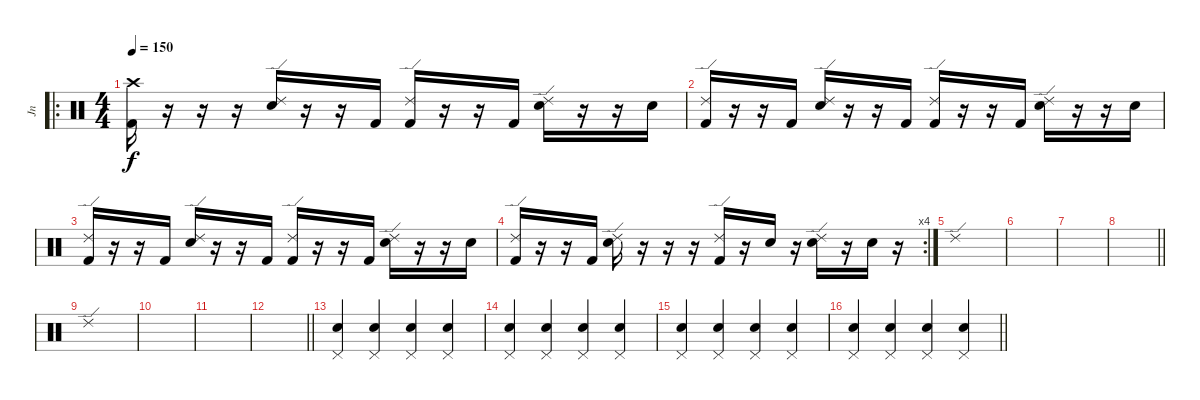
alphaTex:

\track ("Jn" "Jn") {instrument percussion}
\staff {score}
\articulation defaults
\ro
\ts (4 4)
\tempo 150
\clef neutral
\ks c
("Crash high (hit)" "Kick (hit) 2").16{dy f} r.16 r.16 r.16 ("Ride (edge) 2" "Electric Snare (hit)").16 r.16 r.16 "Kick (hit) 2".16 ("Ride (edge) 2" "Kick (hit) 2").16 r.16 r.16 "Kick (hit) 2".16 ("Ride (edge) 2" "Electric Snare (hit)").16 r.16 r.16 "Electric Snare (hit)".16 |
("Ride (edge) 2" "Kick (hit) 2").16 r.16 r.16 "Kick (hit) 2".16 ("Ride (edge) 2" "Electric Snare (hit)").16 r.16 r.16 "Kick (hit) 2".16 ("Ride (edge) 2" "Kick (hit) 2").16 r.16 r.16 "Kick (hit) 2".16 ("Ride (edge) 2" "Electric Snare (hit)").16 r.16 r.16 "Electric Snare (hit)".16 |
("Ride (edge) 2" "Kick (hit) 2").16 r.16 r.16 "Kick (hit) 2".16 ("Ride (edge) 2" "Electric Snare (hit)").16 r.16 r.16 "Kick (hit) 2".16 ("Ride (edge) 2" "Kick (hit) 2").16 r.16 r.16 "Kick (hit) 2".16 ("Ride (edge) 2" "Electric Snare (hit)").16 r.16 r.16 "Electric Snare (hit)".16 |
\rc 4
("Ride (edge) 2" "Kick (hit) 2").16 r.16 r.16 "Kick (hit) 2".16 ("Ride (edge) 2" "Electric Snare (hit)").16 r.16 r.16 r.16 ("Ride (edge) 2" "Kick (hit) 2").16 r.16 "Electric Snare (hit)".16 r.16 ("Ride (edge) 2" "Electric Snare (hit)").16 r.16 "Electric Snare (hit)".16 r.16 |
"Ride (edge) 2".1 |
|
|
\barLineRight lightlight
|
"Ride (edge) 2".1 |
|
|
\barLineRight lightlight
|
("Pedal Hi-Hat (hit)" "Hand Clap (hit)").4 ("Pedal Hi-Hat (hit)" "Hand Clap (hit)").4 ("Pedal Hi-Hat (hit)" "Hand Clap (hit)").4 ("Pedal Hi-Hat (hit)" "Hand Clap (hit)").4 |
("Pedal Hi-Hat (hit)" "Hand Clap (hit)").4 ("Pedal Hi-Hat (hit)" "Hand Clap (hit)").4 ("Pedal Hi-Hat (hit)" "Hand Clap (hit)").4 ("Pedal Hi-Hat (hit)" "Hand Clap (hit)").4 |
("Pedal Hi-Hat (hit)" "Hand Clap (hit)").4 ("Pedal Hi-Hat (hit)" "Hand Clap (hit)").4 ("Pedal Hi-Hat (hit)" "Hand Clap (hit)").4 ("Pedal Hi-Hat (hit)" "Hand Clap (hit)").4 |
\barLineRight lightlight
("Pedal Hi-Hat (hit)" "Hand Clap (hit)").4 ("Pedal Hi-Hat (hit)" "Hand Clap (hit)").4 ("Pedal Hi-Hat (hit)" "Hand Clap (hit)").4 ("Pedal Hi-Hat (hit)" "Hand Clap (hit)").4
